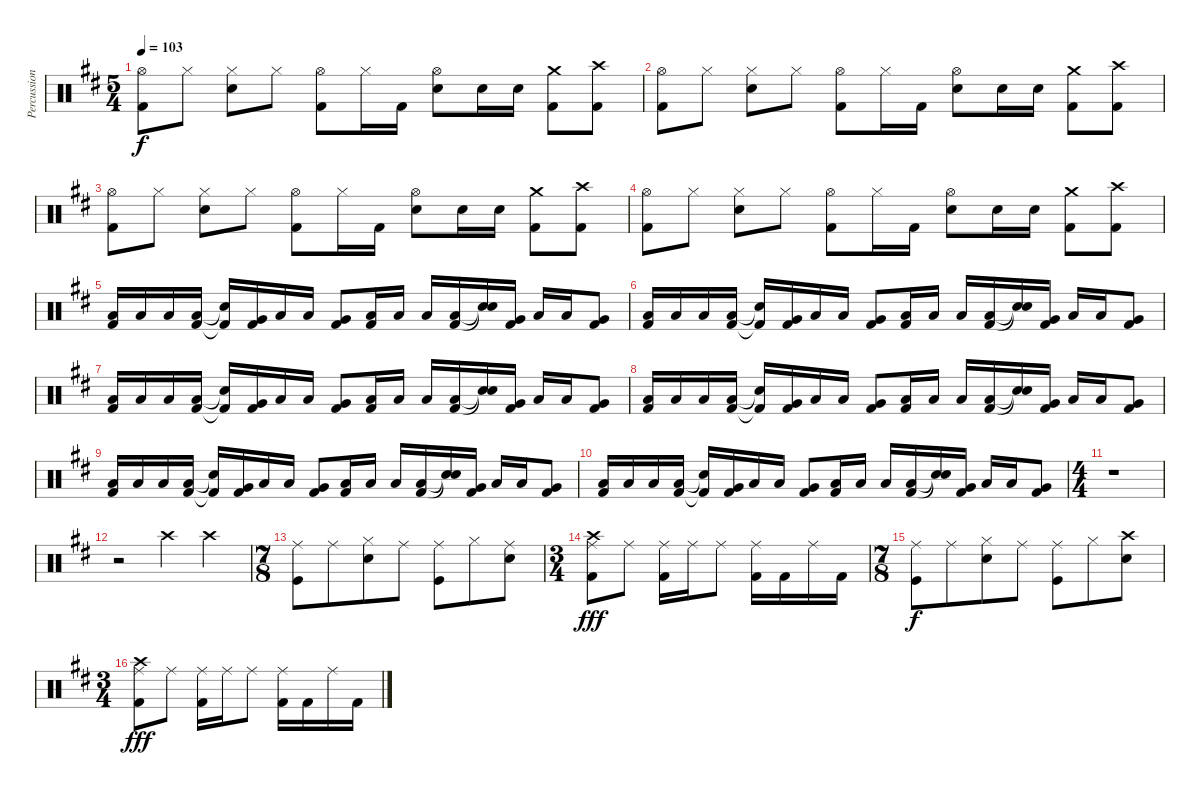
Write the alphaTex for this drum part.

\track ("Percussion" "Percussion") {instrument percussion}
\staff {score}
\articulation defaults
\ts (5 4)
\tempo 103
\clef neutral
\ks d
("Hi-Hat (open)" "Kick (hit) 2").8{dy f} "Hi-Hat (closed)".8 ("Hi-Hat (closed)" "Snare (hit) 2").8 "Hi-Hat (closed)".8 ("Hi-Hat (open)" "Kick (hit) 2").8 "Hi-Hat (closed)".16 "Kick (hit) 2".16 ("Hi-Hat (open)" "Snare (hit) 2").8 "Snare (hit) 2".16 "Snare (hit) 2".16 ("Crash medium (hit)" "Kick (hit) 2").8 ("Crash high (hit)" "Kick (hit) 2").8 |
("Hi-Hat (open)" "Kick (hit) 2").8 "Hi-Hat (closed)".8 ("Hi-Hat (closed)" "Snare (hit) 2").8 "Hi-Hat (closed)".8 ("Hi-Hat (open)" "Kick (hit) 2").8 "Hi-Hat (closed)".16 "Kick (hit) 2".16 ("Hi-Hat (open)" "Snare (hit) 2").8 "Snare (hit) 2".16 "Snare (hit) 2".16 ("Crash medium (hit)" "Kick (hit) 2").8 ("Crash high (hit)" "Kick (hit) 2").8 |
("Hi-Hat (open)" "Kick (hit) 2").8 "Hi-Hat (closed)".8 ("Hi-Hat (closed)" "Snare (hit) 2").8 "Hi-Hat (closed)".8 ("Hi-Hat (open)" "Kick (hit) 2").8 "Hi-Hat (closed)".16 "Kick (hit) 2".16 ("Hi-Hat (open)" "Snare (hit) 2").8 "Snare (hit) 2".16 "Snare (hit) 2".16 ("Crash medium (hit)" "Kick (hit) 2").8 ("Crash high (hit)" "Kick (hit) 2").8 |
("Hi-Hat (open)" "Kick (hit) 2").8 "Hi-Hat (closed)".8 ("Hi-Hat (closed)" "Snare (hit) 2").8 "Hi-Hat (closed)".8 ("Hi-Hat (open)" "Kick (hit) 2").8 "Hi-Hat (closed)".16 "Kick (hit) 2".16 ("Hi-Hat (open)" "Snare (hit) 2").8 "Snare (hit) 2".16 "Snare (hit) 2".16 ("Crash medium (hit)" "Kick (hit) 2").8 ("Crash high (hit)" "Kick (hit) 2").8 |
("Low Floor Tom (hit)" "Kick (hit) 2").16 "Low Tom (hit)".16 "Low Tom (hit)".16 ("Low Floor Tom (hit)" "Kick (hit) 2").16 ("Snare (hit)"{t} "Kick (hit) 2"{t}).16 ("Very Low Tom (hit)" "Kick (hit) 2").16 "Low Tom (hit)".16 "Low Tom (hit)".16 ("Very Low Tom (hit)" "Kick (hit) 2").8 ("Low Floor Tom (hit)" "Kick (hit) 2").16 "Low Tom (hit)".16 "Low Tom (hit)".16 ("Low Floor Tom (hit)" "Kick (hit) 2").16 ("Snare (hit)"{t} "Snare (hit)"{t}).16 ("Very Low Tom (hit)" "Kick (hit) 2").16 "Low Tom (hit)".16 "Low Tom (hit)".16 ("Very Low Tom (hit)" "Kick (hit) 2").8 |
("Low Floor Tom (hit)" "Kick (hit) 2").16 "Low Tom (hit)".16 "Low Tom (hit)".16 ("Low Floor Tom (hit)" "Kick (hit) 2").16 ("Snare (hit)"{t} "Kick (hit) 2"{t}).16 ("Very Low Tom (hit)" "Kick (hit) 2").16 "Low Tom (hit)".16 "Low Tom (hit)".16 ("Very Low Tom (hit)" "Kick (hit) 2").8 ("Low Floor Tom (hit)" "Kick (hit) 2").16 "Low Tom (hit)".16 "Low Tom (hit)".16 ("Low Floor Tom (hit)" "Kick (hit) 2").16 ("Snare (hit)"{t} "Snare (hit)"{t}).16 ("Very Low Tom (hit)" "Kick (hit) 2").16 "Low Tom (hit)".16 "Low Tom (hit)".16 ("Very Low Tom (hit)" "Kick (hit) 2").8 |
("Low Floor Tom (hit)" "Kick (hit) 2").16 "Low Tom (hit)".16 "Low Tom (hit)".16 ("Low Floor Tom (hit)" "Kick (hit) 2").16 ("Snare (hit)"{t} "Kick (hit) 2"{t}).16 ("Very Low Tom (hit)" "Kick (hit) 2").16 "Low Tom (hit)".16 "Low Tom (hit)".16 ("Very Low Tom (hit)" "Kick (hit) 2").8 ("Low Floor Tom (hit)" "Kick (hit) 2").16 "Low Tom (hit)".16 "Low Tom (hit)".16 ("Low Floor Tom (hit)" "Kick (hit) 2").16 ("Snare (hit)"{t} "Snare (hit)"{t}).16 ("Very Low Tom (hit)" "Kick (hit) 2").16 "Low Tom (hit)".16 "Low Tom (hit)".16 ("Very Low Tom (hit)" "Kick (hit) 2").8 |
("Low Floor Tom (hit)" "Kick (hit) 2").16 "Low Tom (hit)".16 "Low Tom (hit)".16 ("Low Floor Tom (hit)" "Kick (hit) 2").16 ("Snare (hit)"{t} "Kick (hit) 2"{t}).16 ("Very Low Tom (hit)" "Kick (hit) 2").16 "Low Tom (hit)".16 "Low Tom (hit)".16 ("Very Low Tom (hit)" "Kick (hit) 2").8 ("Low Floor Tom (hit)" "Kick (hit) 2").16 "Low Tom (hit)".16 "Low Tom (hit)".16 ("Low Floor Tom (hit)" "Kick (hit) 2").16 ("Snare (hit)"{t} "Snare (hit)"{t}).16 ("Very Low Tom (hit)" "Kick (hit) 2").16 "Low Tom (hit)".16 "Low Tom (hit)".16 ("Very Low Tom (hit)" "Kick (hit) 2").8 |
("Low Floor Tom (hit)" "Kick (hit) 2").16 "Low Tom (hit)".16 "Low Tom (hit)".16 ("Low Floor Tom (hit)" "Kick (hit) 2").16 ("Snare (hit)"{t} "Kick (hit) 2"{t}).16 ("Very Low Tom (hit)" "Kick (hit) 2").16 "Low Tom (hit)".16 "Low Tom (hit)".16 ("Very Low Tom (hit)" "Kick (hit) 2").8 ("Low Floor Tom (hit)" "Kick (hit) 2").16 "Low Tom (hit)".16 "Low Tom (hit)".16 ("Low Floor Tom (hit)" "Kick (hit) 2").16 ("Snare (hit)"{t} "Snare (hit)"{t}).16 ("Very Low Tom (hit)" "Kick (hit) 2").16 "Low Tom (hit)".16 "Low Tom (hit)".16 ("Very Low Tom (hit)" "Kick (hit) 2").8 |
("Low Floor Tom (hit)" "Kick (hit) 2").16 "Low Tom (hit)".16 "Low Tom (hit)".16 ("Low Floor Tom (hit)" "Kick (hit) 2").16 ("Snare (hit)"{t} "Kick (hit) 2"{t}).16 ("Very Low Tom (hit)" "Kick (hit) 2").16 "Low Tom (hit)".16 "Low Tom (hit)".16 ("Very Low Tom (hit)" "Kick (hit) 2").8 ("Low Floor Tom (hit)" "Kick (hit) 2").16 "Low Tom (hit)".16 "Low Tom (hit)".16 ("Low Floor Tom (hit)" "Kick (hit) 2").16 ("Snare (hit)"{t} "Snare (hit)"{t}).16 ("Very Low Tom (hit)" "Kick (hit) 2").16 "Low Tom (hit)".16 "Low Tom (hit)".16 ("Very Low Tom (hit)" "Kick (hit) 2").8 |
\ts (4 4)
r.1 |
r.2 "Crash high (hit)".4 "Crash high (hit)".4 |
\ts (7 8)
("Ride (middle)" "Kick (hit)").8 "Ride (middle)".8 ("Hi-Hat (closed)" "Snare (hit) 2").8 "Ride (middle)".8 ("Ride (middle)" "Kick (hit)").8 "Hi-Hat (closed)".8 ("Ride (middle)" "Snare (hit) 2").8 |
\ts (3 4)
("Ride (middle)" "Kick (hit) 2" "Crash high (hit)").8{dy fff} "Ride (middle)".8 ("Ride (middle)" "Kick (hit) 2").16 "Ride (middle)".16 "Ride (middle)".8 ("Ride (middle)" "Kick (hit) 2").16 "Kick (hit) 2".16 "Ride (middle)".16 "Kick (hit) 2".16 |
\ts (7 8)
("Ride (middle)" "Kick (hit)").8{dy f} "Ride (middle)".8 ("Hi-Hat (closed)" "Snare (hit) 2").8 "Ride (middle)".8 ("Ride (middle)" "Kick (hit)").8 "Hi-Hat (closed)".8 ("Crash high (hit)" "Snare (hit) 2").8 |
\ts (3 4)
("Ride (middle)" "Kick (hit) 2" "Crash high (hit)").8{dy fff} "Ride (middle)".8 ("Ride (middle)" "Kick (hit) 2").16 "Ride (middle)".16 "Ride (middle)".8 ("Ride (middle)" "Kick (hit) 2").16 "Kick (hit) 2".16 "Ride (middle)".16 "Kick (hit) 2".16
